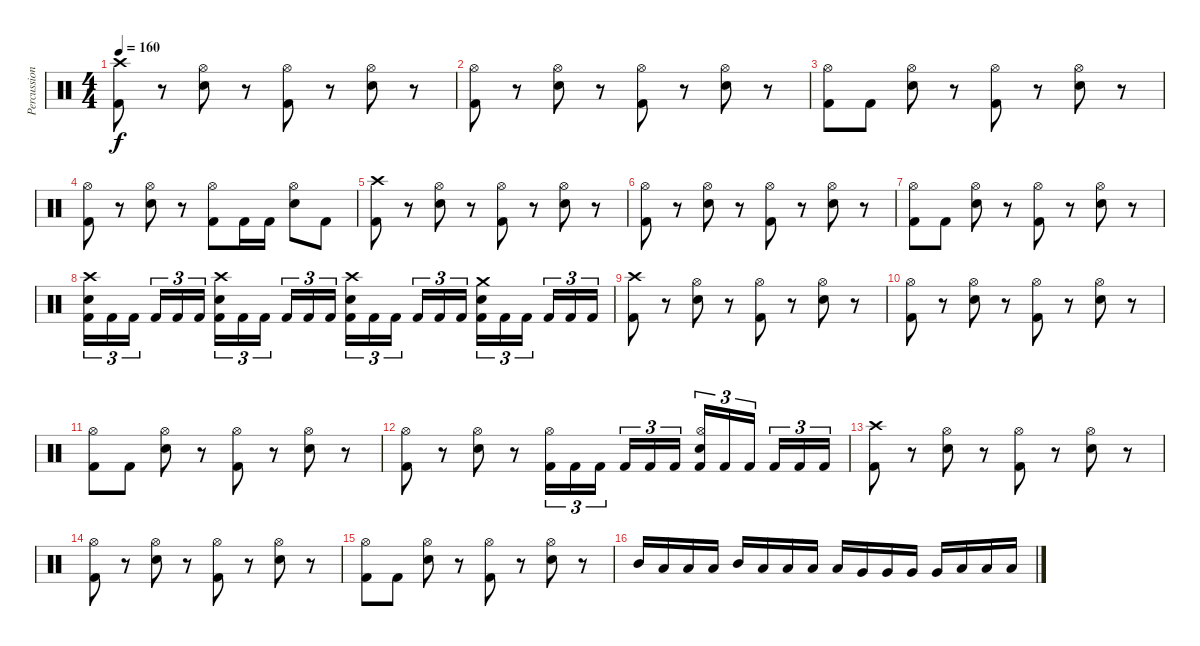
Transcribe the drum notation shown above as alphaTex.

\track ("Percussion" "Percussion") {instrument percussion}
\staff {score}
\articulation defaults
\ts (4 4)
\tempo 160
\clef neutral
\ks c
("Crash high (hit)" "Kick (hit) 2").8{dy f} r.8 ("Hi-Hat (open)" "Electric Snare (hit)").8 r.8 ("Hi-Hat (open)" "Kick (hit) 2").8 r.8 ("Hi-Hat (open)" "Electric Snare (hit)").8 r.8 |
("Hi-Hat (open)" "Kick (hit) 2").8 r.8 ("Hi-Hat (open)" "Electric Snare (hit)").8 r.8 ("Hi-Hat (open)" "Kick (hit) 2").8 r.8 ("Hi-Hat (open)" "Electric Snare (hit)").8 r.8 |
("Hi-Hat (open)" "Kick (hit) 2").8 "Kick (hit) 2".8 ("Hi-Hat (open)" "Electric Snare (hit)").8 r.8 ("Hi-Hat (open)" "Kick (hit) 2").8 r.8 ("Hi-Hat (open)" "Electric Snare (hit)").8 r.8 |
("Hi-Hat (open)" "Kick (hit) 2").8 r.8 ("Hi-Hat (open)" "Electric Snare (hit)").8 r.8 ("Hi-Hat (open)" "Kick (hit) 2").8 "Kick (hit) 2".16 "Kick (hit) 2".16 ("Hi-Hat (open)" "Electric Snare (hit)").8 "Kick (hit) 2".8 |
("Crash high (hit)" "Kick (hit) 2").8 r.8 ("Hi-Hat (open)" "Electric Snare (hit)").8 r.8 ("Hi-Hat (open)" "Kick (hit) 2").8 r.8 ("Hi-Hat (open)" "Electric Snare (hit)").8 r.8 |
("Hi-Hat (open)" "Kick (hit) 2").8 r.8 ("Hi-Hat (open)" "Electric Snare (hit)").8 r.8 ("Hi-Hat (open)" "Kick (hit) 2").8 r.8 ("Hi-Hat (open)" "Electric Snare (hit)").8 r.8 |
("Hi-Hat (open)" "Kick (hit) 2").8 "Kick (hit) 2".8 ("Hi-Hat (open)" "Electric Snare (hit)").8 r.8 ("Hi-Hat (open)" "Kick (hit) 2").8 r.8 ("Hi-Hat (open)" "Electric Snare (hit)").8 r.8 |
("Crash high (hit)" "Electric Snare (hit)" "Kick (hit) 2").16{tu (3 2)} "Kick (hit) 2".16{tu (3 2)} "Kick (hit) 2".16{tu (3 2) beam splitsecondary} "Kick (hit) 2".16{tu (3 2)} "Kick (hit) 2".16{tu (3 2)} "Kick (hit) 2".16{tu (3 2)} ("Crash high (hit)" "Electric Snare (hit)" "Kick (hit) 2").16{tu (3 2)} "Kick (hit) 2".16{tu (3 2)} "Kick (hit) 2".16{tu (3 2) beam splitsecondary} "Kick (hit) 2".16{tu (3 2)} "Kick (hit) 2".16{tu (3 2)} "Kick (hit) 2".16{tu (3 2)} ("Crash high (hit)" "Electric Snare (hit)" "Kick (hit) 2").16{tu (3 2)} "Kick (hit) 2".16{tu (3 2)} "Kick (hit) 2".16{tu (3 2) beam splitsecondary} "Kick (hit) 2".16{tu (3 2)} "Kick (hit) 2".16{tu (3 2)} "Kick (hit) 2".16{tu (3 2)} ("Crash medium (hit)" "Electric Snare (hit)" "Kick (hit) 2").16{tu (3 2)} "Kick (hit) 2".16{tu (3 2)} "Kick (hit) 2".16{tu (3 2) beam splitsecondary} "Kick (hit) 2".16{tu (3 2)} "Kick (hit) 2".16{tu (3 2)} "Kick (hit) 2".16{tu (3 2)} |
("Crash high (hit)" "Kick (hit) 2").8 r.8 ("Hi-Hat (open)" "Electric Snare (hit)").8 r.8 ("Hi-Hat (open)" "Kick (hit) 2").8 r.8 ("Hi-Hat (open)" "Electric Snare (hit)").8 r.8 |
("Hi-Hat (open)" "Kick (hit) 2").8 r.8 ("Hi-Hat (open)" "Electric Snare (hit)").8 r.8 ("Hi-Hat (open)" "Kick (hit) 2").8 r.8 ("Hi-Hat (open)" "Electric Snare (hit)").8 r.8 |
("Hi-Hat (open)" "Kick (hit) 2").8 "Kick (hit) 2".8 ("Hi-Hat (open)" "Electric Snare (hit)").8 r.8 ("Hi-Hat (open)" "Kick (hit) 2").8 r.8 ("Hi-Hat (open)" "Electric Snare (hit)").8 r.8 |
("Hi-Hat (open)" "Kick (hit) 2").8 r.8 ("Hi-Hat (open)" "Electric Snare (hit)").8 r.8 ("Hi-Hat (open)" "Kick (hit) 2").16{tu (3 2)} "Kick (hit) 2".16{tu (3 2)} "Kick (hit) 2".16{tu (3 2) beam splitsecondary} "Kick (hit) 2".16{tu (3 2)} "Kick (hit) 2".16{tu (3 2)} "Kick (hit) 2".16{tu (3 2)} ("Hi-Hat (open)" "Electric Snare (hit)" "Kick (hit) 2").16{tu (3 2)} "Kick (hit) 2".16{tu (3 2)} "Kick (hit) 2".16{tu (3 2) beam splitsecondary} "Kick (hit) 2".16{tu (3 2)} "Kick (hit) 2".16{tu (3 2)} "Kick (hit) 2".16{tu (3 2)} |
("Crash high (hit)" "Kick (hit) 2").8 r.8 ("Hi-Hat (open)" "Electric Snare (hit)").8 r.8 ("Hi-Hat (open)" "Kick (hit) 2").8 r.8 ("Hi-Hat (open)" "Electric Snare (hit)").8 r.8 |
("Hi-Hat (open)" "Kick (hit) 2").8 r.8 ("Hi-Hat (open)" "Electric Snare (hit)").8 r.8 ("Hi-Hat (open)" "Kick (hit) 2").8 r.8 ("Hi-Hat (open)" "Electric Snare (hit)").8 r.8 |
("Hi-Hat (open)" "Kick (hit) 2").8 "Kick (hit) 2".8 ("Hi-Hat (open)" "Electric Snare (hit)").8 r.8 ("Hi-Hat (open)" "Kick (hit) 2").8 r.8 ("Hi-Hat (open)" "Electric Snare (hit)").8 r.8 |
"Mid Tom (hit)".16 "Low Tom (hit)".16 "Low Tom (hit)".16 "Low Tom (hit)".16 "Mid Tom (hit)".16 "Low Tom (hit)".16 "Low Tom (hit)".16 "Low Tom (hit)".16 "Low Tom (hit)".16 "Very Low Tom (hit)".16 "Very Low Tom (hit)".16 "Very Low Tom (hit)".16 "Very Low Tom (hit)".16 "Low Floor Tom (hit)".16 "Low Floor Tom (hit)".16 "Low Floor Tom (hit)".16
